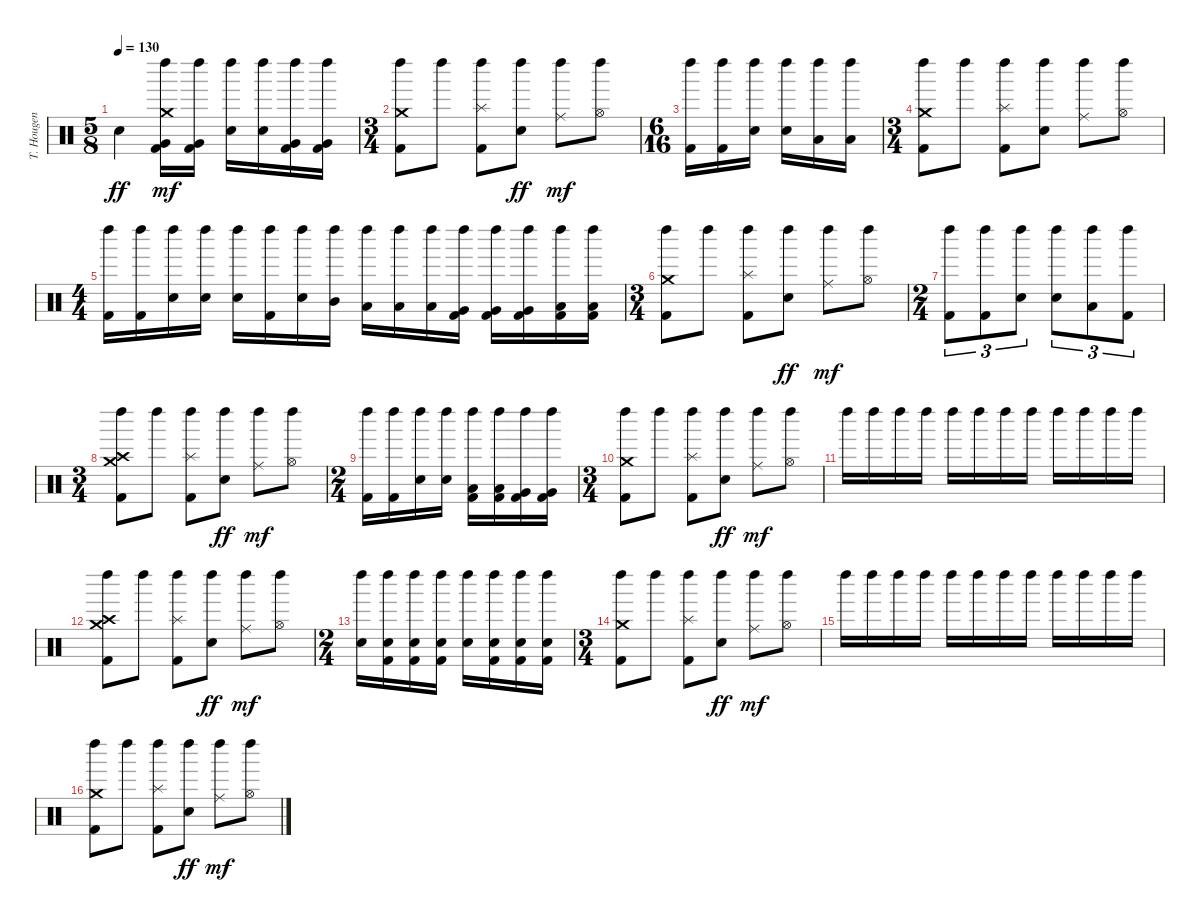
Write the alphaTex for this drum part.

\track ("T. Hougen - Drums" "T. Hougen ") {instrument percussion}
\staff {score}
\articulation defaults
\ts (5 8)
\tempo 130
\clef neutral
\ks c "Electric Snare (hit)".4{dy ff}
("Left Maraca (hit)" "Crash medium (hit)" "Very Low Tom (hit)" "Kick (hit) 2").16{dy mf} ("Left Maraca (hit)" "Very Low Tom (hit)" "Kick (hit) 2").16 ("Left Maraca (hit)" "Electric Snare (hit)").16 ("Left Maraca (hit)" "Electric Snare (hit)").16 ("Left Maraca (hit)" "Very Low Tom (hit)" "Kick (hit) 2").16 ("Left Maraca (hit)" "Very Low Tom (hit)" "Kick (hit) 2").16 |
\ts (3 4)
("Left Maraca (hit)" "Crash medium (hit)" "Kick (hit) 2").8 "Left Maraca (hit)".8 ("Left Maraca (hit)" "Splash (hit)" "Kick (hit) 2").8 ("Left Maraca (hit)" "Electric Snare (hit)").8{dy ff} ("Left Maraca (hit)" "Ride (middle)").8{dy mf} ("Left Maraca (hit)" "Hi-Hat (open)").8 |
\ts (6 16)
("Left Maraca (hit)" "Kick (hit) 2").16 ("Left Maraca (hit)" "Kick (hit) 2").16 ("Left Maraca (hit)" "Electric Snare (hit)").16 ("Left Maraca (hit)" "Electric Snare (hit)").16 ("Left Maraca (hit)" "Low Tom (hit)").16 ("Left Maraca (hit)" "Low Tom (hit)").16 |
\ts (3 4)
("Left Maraca (hit)" "Crash medium (hit)" "Kick (hit) 2").8 "Left Maraca (hit)".8 ("Left Maraca (hit)" "Splash (hit)" "Kick (hit) 2").8 ("Left Maraca (hit)" "Electric Snare (hit)").8 ("Left Maraca (hit)" "Ride (middle)").8 ("Left Maraca (hit)" "Hi-Hat (open)").8 |
\ts (4 4)
("Left Maraca (hit)" "Kick (hit) 2").16 ("Left Maraca (hit)" "Kick (hit) 2").16 ("Left Maraca (hit)" "Electric Snare (hit)").16 ("Left Maraca (hit)" "Electric Snare (hit)").16 ("Left Maraca (hit)" "Electric Snare (hit)").16 ("Left Maraca (hit)" "Kick (hit) 2").16 ("Left Maraca (hit)" "Electric Snare (hit)").16 ("Left Maraca (hit)" "Mid Tom (hit)").16 ("Left Maraca (hit)" "Low Tom (hit)").16 ("Left Maraca (hit)" "Low Tom (hit)").16 ("Left Maraca (hit)" "Low Tom (hit)").16 ("Left Maraca (hit)" "Very Low Tom (hit)" "Kick (hit) 2").16 ("Left Maraca (hit)" "Very Low Tom (hit)" "Kick (hit) 2").16 ("Left Maraca (hit)" "Very Low Tom (hit)" "Kick (hit) 2").16 ("Left Maraca (hit)" "Low Floor Tom (hit)" "Kick (hit) 2").16 ("Left Maraca (hit)" "Low Floor Tom (hit)" "Kick (hit) 2").16 |
\ts (3 4)
("Left Maraca (hit)" "Crash medium (hit)" "Kick (hit) 2").8 "Left Maraca (hit)".8 ("Left Maraca (hit)" "Splash (hit)" "Kick (hit) 2").8 ("Left Maraca (hit)" "Electric Snare (hit)").8{dy ff} ("Left Maraca (hit)" "Ride (middle)").8{dy mf} ("Left Maraca (hit)" "Hi-Hat (open)").8 |
\ts (2 4)
("Left Maraca (hit)" "Kick (hit) 2").8{tu (3 2)} ("Left Maraca (hit)" "Kick (hit) 2").8{tu (3 2)} ("Left Maraca (hit)" "Electric Snare (hit)").8{tu (3 2)} ("Left Maraca (hit)" "Electric Snare (hit)").8{tu (3 2)} ("Left Maraca (hit)" "Low Tom (hit)").8{tu (3 2)} ("Left Maraca (hit)" "Kick (hit) 2").8{tu (3 2)} |
\ts (3 4)
("Left Maraca (hit)" "Crash medium (hit)" "Crash high (hit)" "Kick (hit) 2").8 "Left Maraca (hit)".8 ("Left Maraca (hit)" "Splash (hit)" "Kick (hit) 2").8 ("Left Maraca (hit)" "Electric Snare (hit)").8{dy ff} ("Left Maraca (hit)" "Ride (middle)").8{dy mf} ("Left Maraca (hit)" "Hi-Hat (open)").8 |
\ts (2 4)
("Left Maraca (hit)" "Kick (hit) 2").16 ("Left Maraca (hit)" "Kick (hit) 2").16 ("Left Maraca (hit)" "Electric Snare (hit)").16 ("Left Maraca (hit)" "Electric Snare (hit)").16 ("Left Maraca (hit)" "Low Tom (hit)" "Kick (hit) 2").16 ("Left Maraca (hit)" "Low Tom (hit)" "Kick (hit) 2").16 ("Left Maraca (hit)" "Very Low Tom (hit)" "Kick (hit) 2").16 ("Left Maraca (hit)" "Very Low Tom (hit)" "Kick (hit) 2").16 |
\ts (3 4)
("Left Maraca (hit)" "Crash medium (hit)" "Kick (hit) 2").8 "Left Maraca (hit)".8 ("Left Maraca (hit)" "Splash (hit)" "Kick (hit) 2").8 ("Left Maraca (hit)" "Electric Snare (hit)").8{dy ff} ("Left Maraca (hit)" "Ride (middle)").8{dy mf} ("Left Maraca (hit)" "Hi-Hat (open)").8 |
"Left Maraca (hit)".16 "Left Maraca (hit)".16 "Left Maraca (hit)".16 "Left Maraca (hit)".16 "Left Maraca (hit)".16 "Left Maraca (hit)".16 "Left Maraca (hit)".16 "Left Maraca (hit)".16 "Left Maraca (hit)".16 "Left Maraca (hit)".16 "Left Maraca (hit)".16 "Left Maraca (hit)".16 |
("Left Maraca (hit)" "Crash medium (hit)" "Crash high (hit)" "Kick (hit) 2").8 "Left Maraca (hit)".8 ("Left Maraca (hit)" "Splash (hit)" "Kick (hit) 2").8 ("Left Maraca (hit)" "Electric Snare (hit)").8{dy ff} ("Left Maraca (hit)" "Ride (middle)").8{dy mf} ("Left Maraca (hit)" "Hi-Hat (open)").8 |
\ts (2 4)
("Left Maraca (hit)" "Snare (hit) 2").16 ("Left Maraca (hit)" "Electric Snare (hit)" "Kick (hit) 2").16 ("Left Maraca (hit)" "Electric Snare (hit)" "Kick (hit) 2").16 ("Left Maraca (hit)" "Electric Snare (hit)" "Kick (hit) 2").16 ("Left Maraca (hit)" "Snare (hit) 2").16 ("Left Maraca (hit)" "Electric Snare (hit)" "Kick (hit) 2").16 ("Left Maraca (hit)" "Electric Snare (hit)" "Kick (hit) 2").16 ("Left Maraca (hit)" "Electric Snare (hit)" "Kick (hit) 2").16 |
\ts (3 4)
("Left Maraca (hit)" "Crash medium (hit)" "Kick (hit) 2").8 "Left Maraca (hit)".8 ("Left Maraca (hit)" "Splash (hit)" "Kick (hit) 2").8 ("Left Maraca (hit)" "Electric Snare (hit)").8{dy ff} ("Left Maraca (hit)" "Ride (middle)").8{dy mf} ("Left Maraca (hit)" "Hi-Hat (open)").8 |
"Left Maraca (hit)".16 "Left Maraca (hit)".16 "Left Maraca (hit)".16 "Left Maraca (hit)".16 "Left Maraca (hit)".16 "Left Maraca (hit)".16 "Left Maraca (hit)".16 "Left Maraca (hit)".16 "Left Maraca (hit)".16 "Left Maraca (hit)".16 "Left Maraca (hit)".16 "Left Maraca (hit)".16 |
("Left Maraca (hit)" "Crash medium (hit)" "Kick (hit) 2").8 "Left Maraca (hit)".8 ("Left Maraca (hit)" "Splash (hit)" "Kick (hit) 2").8 ("Left Maraca (hit)" "Electric Snare (hit)").8{dy ff} ("Left Maraca (hit)" "Ride (middle)").8{dy mf} ("Left Maraca (hit)" "Hi-Hat (open)").8
